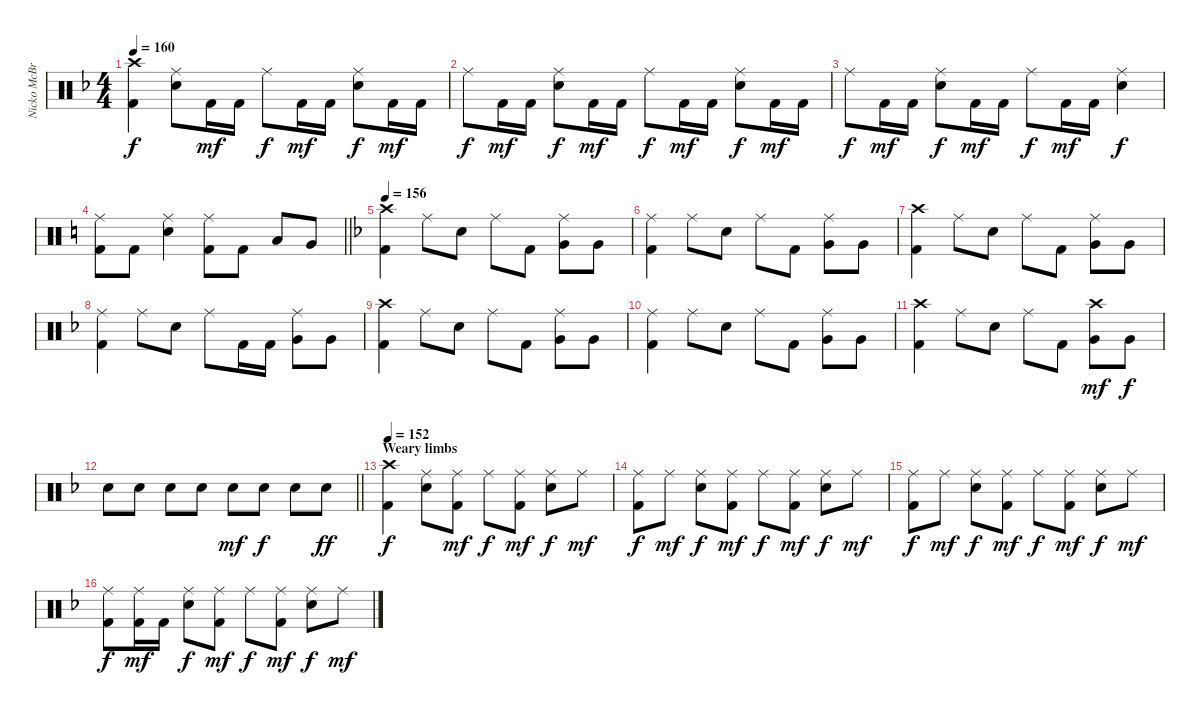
\track ("Nicko McBrain" "Nicko McBr") {instrument percussion}
\staff {score}
\articulation defaults
\ts (4 4)
\tempo 160
\clef neutral
\ks f
("Crash high (hit)" "Kick (hit) 2").4{dy f} ("Ride (middle)" "Electric Snare (hit)").8 "Kick (hit) 2".16{dy mf} "Kick (hit) 2".16 "Ride (middle)".8{dy f} "Kick (hit) 2".16{dy mf} "Kick (hit) 2".16 ("Ride (middle)" "Electric Snare (hit)").8{dy f} "Kick (hit) 2".16{dy mf} "Kick (hit) 2".16 |
"Ride (middle)".8{dy f} "Kick (hit) 2".16{dy mf} "Kick (hit) 2".16 ("Ride (middle)" "Electric Snare (hit)").8{dy f} "Kick (hit) 2".16{dy mf} "Kick (hit) 2".16 "Ride (middle)".8{dy f} "Kick (hit) 2".16{dy mf} "Kick (hit) 2".16 ("Ride (middle)" "Electric Snare (hit)").8{dy f} "Kick (hit) 2".16{dy mf} "Kick (hit) 2".16 |
"Ride (middle)".8{dy f} "Kick (hit) 2".16{dy mf} "Kick (hit) 2".16 ("Ride (middle)" "Electric Snare (hit)").8{dy f} "Kick (hit) 2".16{dy mf} "Kick (hit) 2".16 "Ride (middle)".8{dy f} "Kick (hit) 2".16{dy mf} "Kick (hit) 2".16 ("Ride (middle)" "Electric Snare (hit)").4{dy f} |
\barLineRight lightlight
\ks c
("Ride (middle)" "Kick (hit) 2").8 "Kick (hit) 2".8 ("Ride (middle)" "Electric Snare (hit)").4 ("Ride (middle)" "Kick (hit) 2").8 "Kick (hit) 2".8 "Low Tom (hit)".8 "Very Low Tom (hit)".8 |
\tempo 156
\ks f
("Crash high (hit)" "Kick (hit) 2").4 "Ride (middle)".8 "Electric Snare (hit)".8 "Ride (middle)".8 "Kick (hit) 2".8 ("Ride (middle)" "Very Low Tom (hit)").8 "Very Low Tom (hit)".8 |
("Ride (middle)" "Kick (hit) 2").4 "Ride (middle)".8 "Electric Snare (hit)".8 "Ride (middle)".8 "Kick (hit) 2".8 ("Ride (middle)" "Very Low Tom (hit)").8 "Very Low Tom (hit)".8 |
("Crash high (hit)" "Kick (hit) 2").4 "Ride (middle)".8 "Electric Snare (hit)".8 "Ride (middle)".8 "Kick (hit) 2".8 ("Ride (middle)" "Very Low Tom (hit)").8 "Very Low Tom (hit)".8 |
("Ride (middle)" "Kick (hit) 2").4 "Ride (middle)".8 "Electric Snare (hit)".8 "Ride (middle)".8 "Kick (hit) 2".16 "Kick (hit) 2".16 ("Ride (middle)" "Very Low Tom (hit)").8 "Very Low Tom (hit)".8 |
("Crash high (hit)" "Kick (hit) 2").4 "Ride (middle)".8 "Electric Snare (hit)".8 "Ride (middle)".8 "Kick (hit) 2".8 ("Ride (middle)" "Very Low Tom (hit)").8 "Very Low Tom (hit)".8 |
("Ride (middle)" "Kick (hit) 2").4 "Ride (middle)".8 "Electric Snare (hit)".8 "Ride (middle)".8 "Kick (hit) 2".8 ("Ride (middle)" "Very Low Tom (hit)").8 "Very Low Tom (hit)".8 |
("Crash high (hit)" "Kick (hit) 2").4 "Ride (middle)".8 "Electric Snare (hit)".8 "Ride (middle)".8 "Kick (hit) 2".8 ("Crash high (hit)" "Very Low Tom (hit)").8{dy mf} "Very Low Tom (hit)".8{dy f} |
\barLineRight lightlight "Snare (hit) 2".8{volume 9} "Snare (hit) 2".8 "Snare (hit) 2".8{volume 12} "Snare (hit) 2".8 "Snare (hit) 2".8{dy mf volume 13} "Snare (hit) 2".8{dy f} "Snare (hit) 2".8{volume 16} "Snare (hit) 2".8{dy ff}
|
\section ("" "Weary limbs")
\tempo 152
("Crash high (hit)" "Kick (hit) 2").4{dy f} ("Ride (middle)" "Electric Snare (hit)").8 ("Ride (middle)" "Kick (hit) 2").8{dy mf} "Ride (middle)".8{dy f} ("Ride (middle)" "Kick (hit) 2").8{dy mf} ("Ride (middle)" "Electric Snare (hit)").8{dy f} "Ride (middle)".8{dy mf} |
("Ride (middle)" "Kick (hit) 2").8{dy f} "Ride (middle)".8{dy mf} ("Ride (middle)" "Electric Snare (hit)").8{dy f} ("Ride (middle)" "Kick (hit) 2").8{dy mf} "Ride (middle)".8{dy f} ("Ride (middle)" "Kick (hit) 2").8{dy mf} ("Ride (middle)" "Electric Snare (hit)").8{dy f} "Ride (middle)".8{dy mf} |
("Ride (middle)" "Kick (hit) 2").8{dy f} "Ride (middle)".8{dy mf} ("Ride (middle)" "Electric Snare (hit)").8{dy f} ("Ride (middle)" "Kick (hit) 2").8{dy mf} "Ride (middle)".8{dy f} ("Ride (middle)" "Kick (hit) 2").8{dy mf} ("Ride (middle)" "Electric Snare (hit)").8{dy f} "Ride (middle)".8{dy mf} |
("Ride (middle)" "Kick (hit) 2").8{dy f} ("Ride (middle)" "Kick (hit) 2").16{dy mf} "Kick (hit) 2".16 ("Ride (middle)" "Electric Snare (hit)").8{dy f} ("Ride (middle)" "Kick (hit) 2").8{dy mf} "Ride (middle)".8{dy f} ("Ride (middle)" "Kick (hit) 2").8{dy mf} ("Ride (middle)" "Electric Snare (hit)").8{dy f} "Ride (middle)".8{dy mf}
